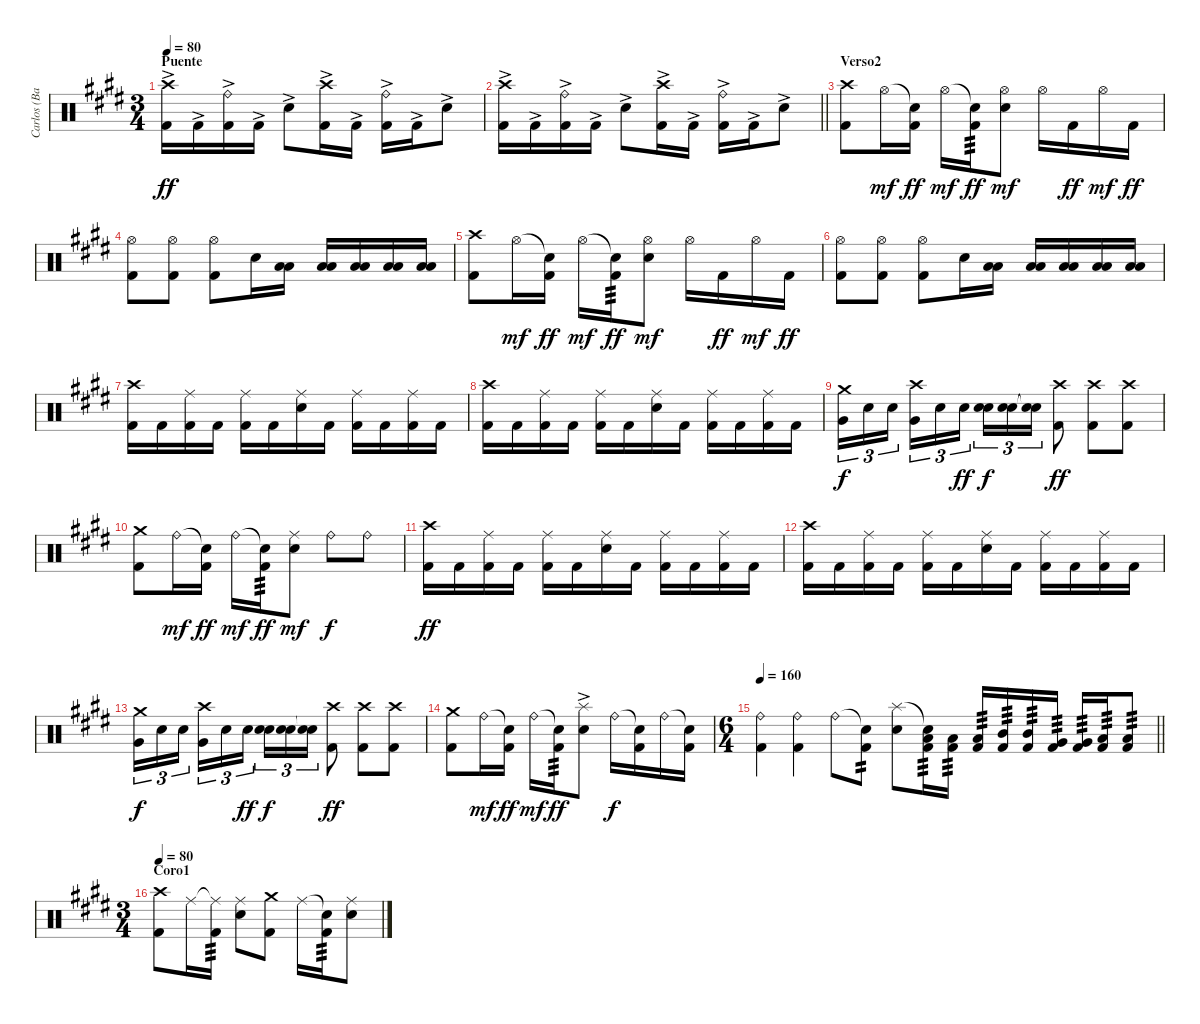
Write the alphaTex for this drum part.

\track ("Carlos (Batería)" "Carlos (Ba") {instrument percussion}
\staff
\articulation defaults
\ts (3 4)
\section ("" "Puente")
\tempo 80
\clef neutral
\ks c#minor
("Crash high (hit)" "Kick (hit) 2"{ac}).16{dy ff volume 16} "Kick (hit) 2"{ac}.16 ("Ride (bell)" "Kick (hit) 2"{ac}).16 "Kick (hit) 2"{ac}.16 "Snare (hit) 2"{ac}.8 ("Crash high (hit)" "Kick (hit) 2"{ac}).16 "Kick (hit) 2"{ac}.16 ("Ride (bell)" "Kick (hit) 2"{ac}).16 "Kick (hit) 2"{ac}.16 "Snare (hit) 2"{ac}.8 |
\barLineRight lightlight
("Crash high (hit)" "Kick (hit) 2"{ac}).16 "Kick (hit) 2"{ac}.16 ("Ride (bell)" "Kick (hit) 2"{ac}).16 "Kick (hit) 2"{ac}.16 "Snare (hit) 2"{ac}.8 ("Crash high (hit)" "Kick (hit) 2"{ac}).16 "Kick (hit) 2"{ac}.16 ("Ride (bell)" "Kick (hit) 2"{ac}).16 "Kick (hit) 2"{ac}.16 "Snare (hit) 2"{ac}.8 |
\section ("" "Verso2")
("Crash high (hit)" "Kick (hit) 2").8 "Hi-Hat (open)".16{dy mf} ("Snare (hit)"{t} "Kick (hit) 2").16{dy ff} "Hi-Hat (open)".16{dy mf} ("Snare (hit)"{t} "Kick (hit) 2").16{tp 3 dy ff} ("Hi-Hat (open)" "Snare (hit) 2").8{dy mf} "Hi-Hat (open)".16 "Kick (hit) 2".16{dy ff} "Hi-Hat (open)".16{dy mf} "Kick (hit) 2".16{dy ff} |
("Hi-Hat (open)" "Kick (hit) 2").8 ("Hi-Hat (open)" "Kick (hit) 2").8 ("Hi-Hat (open)" "Kick (hit) 2").8 "Snare (hit) 2".16 ("Low Floor Tom (hit)" "Low Tom (hit)").16 ("Low Floor Tom (hit)" "Low Tom (hit)").16 ("Low Floor Tom (hit)" "Low Tom (hit)").16 ("Low Floor Tom (hit)" "Low Tom (hit)").16 ("Low Floor Tom (hit)" "Low Tom (hit)").16 |
("Crash high (hit)" "Kick (hit) 2").8 "Hi-Hat (open)".16{dy mf} ("Snare (hit)"{t} "Kick (hit) 2").16{dy ff} "Hi-Hat (open)".16{dy mf} ("Snare (hit)"{t} "Kick (hit) 2").16{tp 3 dy ff} ("Hi-Hat (open)" "Snare (hit) 2").8{dy mf} "Hi-Hat (open)".16 "Kick (hit) 2".16{dy ff} "Hi-Hat (open)".16{dy mf} "Kick (hit) 2".16{dy ff} |
("Hi-Hat (open)" "Kick (hit) 2").8 ("Hi-Hat (open)" "Kick (hit) 2").8 ("Hi-Hat (open)" "Kick (hit) 2").8 "Snare (hit) 2".16 ("Low Floor Tom (hit)" "Low Tom (hit)").16 ("Low Floor Tom (hit)" "Low Tom (hit)").16 ("Low Floor Tom (hit)" "Low Tom (hit)").16 ("Low Floor Tom (hit)" "Low Tom (hit)").16 ("Low Floor Tom (hit)" "Low Tom (hit)").16 |
("Crash high (hit)" "Kick (hit) 2").16 "Kick (hit) 2".16 ("Ride (middle)" "Kick (hit) 2").16 "Kick (hit) 2".16 ("Ride (middle)" "Kick (hit) 2").16 "Kick (hit) 2".16 ("Ride (middle)" "Snare (hit) 2").16 "Kick (hit) 2".16 ("Ride (middle)" "Kick (hit) 2").16 "Kick (hit) 2".16 ("Ride (middle)" "Kick (hit) 2").16 "Kick (hit) 2".16 |
("Crash high (hit)" "Kick (hit) 2").16 "Kick (hit) 2".16 ("Ride (middle)" "Kick (hit) 2").16 "Kick (hit) 2".16 ("Ride (middle)" "Kick (hit) 2").16 "Kick (hit) 2".16 ("Ride (middle)" "Snare (hit) 2").16 "Kick (hit) 2".16 ("Ride (middle)" "Kick (hit) 2").16 "Kick (hit) 2".16 ("Ride (middle)" "Kick (hit) 2").16 "Kick (hit) 2".16 |
("Crash medium (hit)" "Very Low Tom (hit)").16{tu (3 2) dy f} "Snare (hit) 2".16{tu (3 2)} "Snare (hit) 2".16{tu (3 2) beam splitsecondary} ("Crash high (hit)" "Very Low Tom (hit)").16{tu (3 2)} "Snare (hit) 2".16{tu (3 2)} "Snare (hit) 2".16{tu (3 2) dy ff} ("Snare (hit) 2" "Snare (hit) 2").16{tu (3 2) dy f} ("Snare (hit) 2" "Snare (hit) 2").16{tu (3 2)} ("Snare (hit)"{t} "Snare (hit)"{t}).16{tu (3 2)} ("Crash high (hit)" "Kick (hit) 2").8{dy ff} ("Crash high (hit)" "Kick (hit) 2").8 ("Crash high (hit)" "Kick (hit) 2").8 |
("Crash medium (hit)" "Kick (hit) 2").8 "Ride (bell)".16{dy mf} ("Snare (hit)"{t} "Kick (hit) 2").16{dy ff} "Ride (bell)".16{dy mf} ("Snare (hit)"{t} "Kick (hit) 2").16{tp 3 dy ff} ("Ride (middle)" "Snare (hit) 2").8{dy mf} "Ride (bell)".8{dy f} "Ride (bell)".8 |
("Crash high (hit)" "Kick (hit) 2").16{dy ff} "Kick (hit) 2".16 ("Ride (middle)" "Kick (hit) 2").16 "Kick (hit) 2".16 ("Ride (middle)" "Kick (hit) 2").16 "Kick (hit) 2".16 ("Ride (middle)" "Snare (hit) 2").16 "Kick (hit) 2".16 ("Ride (middle)" "Kick (hit) 2").16 "Kick (hit) 2".16 ("Ride (middle)" "Kick (hit) 2").16 "Kick (hit) 2".16 |
("Crash high (hit)" "Kick (hit) 2").16 "Kick (hit) 2".16 ("Ride (middle)" "Kick (hit) 2").16 "Kick (hit) 2".16 ("Ride (middle)" "Kick (hit) 2").16 "Kick (hit) 2".16 ("Ride (middle)" "Snare (hit) 2").16 "Kick (hit) 2".16 ("Ride (middle)" "Kick (hit) 2").16 "Kick (hit) 2".16 ("Ride (middle)" "Kick (hit) 2").16 "Kick (hit) 2".16 |
("Crash medium (hit)" "Very Low Tom (hit)").16{tu (3 2) dy f} "Snare (hit) 2".16{tu (3 2)} "Snare (hit) 2".16{tu (3 2) beam splitsecondary} ("Crash high (hit)" "Very Low Tom (hit)").16{tu (3 2)} "Snare (hit) 2".16{tu (3 2)} "Snare (hit) 2".16{tu (3 2) dy ff} ("Snare (hit) 2" "Snare (hit) 2").16{tu (3 2) dy f} ("Snare (hit) 2" "Snare (hit) 2").16{tu (3 2)} ("Snare (hit)"{t} "Snare (hit)"{t}).16{tu (3 2)} ("Crash high (hit)" "Kick (hit) 2").8{dy ff} ("Crash high (hit)" "Kick (hit) 2").8 ("Crash high (hit)" "Kick (hit) 2").8 |
("Crash medium (hit)" "Kick (hit) 2").8 "Ride (bell)".16{dy mf} ("Snare (hit)"{t} "Kick (hit) 2").16{dy ff} "Ride (bell)".16{dy mf} ("Snare (hit)"{t} "Kick (hit) 2").16{tp 3 dy ff} ("Splash (hit)" "Snare (hit) 2"{ac}).8 "Ride (bell)".16{dy f} ("Snare (hit)"{t} "Kick (hit) 2").16 "Ride (bell)".16 ("Snare (hit)"{t} "Kick (hit) 2").16 |
\ts (6 4)
\tempo 160
\barLineRight lightlight
("Ride (bell)" "Kick (hit) 2").4 ("Ride (bell)" "Kick (hit) 2").4 "Ride (bell)".8 ("Snare (hit)"{t} "Kick (hit) 2").8{tp 2} ("Splash (hit)" "Snare (hit) 2").8 ("Snare (hit)"{t} "Low Tom (hit)" "Kick (hit) 2").16{tp 3} ("Low Tom (hit)" "Kick (hit) 2").16{tp 3} ("Low Tom (hit)" "Kick (hit) 2").16{tp 3} ("Mid Tom (hit)" "Kick (hit) 2").16{tp 3} ("Mid Tom (hit)" "Kick (hit) 2").16{tp 3} ("Very Low Tom (hit)" "Kick (hit) 2").16{tp 3} ("Very Low Tom (hit)" "Kick (hit) 2").16{tp 3} ("Low Floor Tom (hit)" "Kick (hit) 2").16{tp 3} ("Low Floor Tom (hit)" "Kick (hit) 2").8{tp 3} |
\ts (3 4)
\section ("" "Coro1")
\tempo 80
("Crash high (hit)" "Kick (hit) 2").8 "Ride (middle)".16 ("Ride (middle)"{t} "Kick (hit) 2").16{tp 3} ("Ride (middle)" "Snare (hit) 2").8 ("Crash medium (hit)" "Kick (hit) 2").8 "Ride (middle)".16 ("Snare (hit)"{t} "Kick (hit) 2").16{tp 3} ("Ride (middle)" "Snare (hit) 2").8
